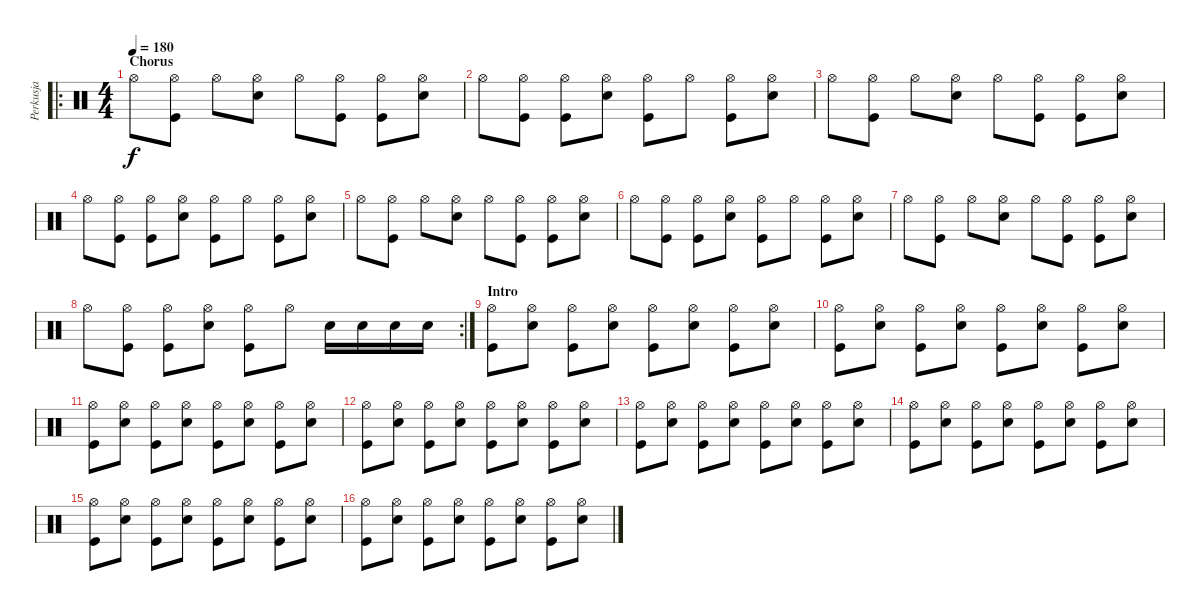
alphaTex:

\track ("Perkusja" "Perkusja") {instrument percussion}
\staff {score}
\articulation defaults
\ro
\ts (4 4)
\section ("" "Chorus")
\tempo 180
\clef neutral
\ks c "Hi-Hat (open)".8{dy f}
("Hi-Hat (open)" "Kick (hit)").8 "Hi-Hat (open)".8 ("Hi-Hat (open)" "Electric Snare (hit)").8 "Hi-Hat (open)".8 ("Hi-Hat (open)" "Kick (hit)").8 ("Hi-Hat (open)" "Kick (hit)").8 ("Hi-Hat (open)" "Electric Snare (hit)").8 |
"Hi-Hat (open)".8 ("Hi-Hat (open)" "Kick (hit)").8 ("Hi-Hat (open)" "Kick (hit)").8 ("Hi-Hat (open)" "Electric Snare (hit)").8 ("Hi-Hat (open)" "Kick (hit)").8 "Hi-Hat (open)".8 ("Hi-Hat (open)" "Kick (hit)").8 ("Hi-Hat (open)" "Electric Snare (hit)").8 |
"Hi-Hat (open)".8 ("Hi-Hat (open)" "Kick (hit)").8 "Hi-Hat (open)".8 ("Hi-Hat (open)" "Electric Snare (hit)").8 "Hi-Hat (open)".8 ("Hi-Hat (open)" "Kick (hit)").8 ("Hi-Hat (open)" "Kick (hit)").8 ("Hi-Hat (open)" "Electric Snare (hit)").8 |
"Hi-Hat (open)".8 ("Hi-Hat (open)" "Kick (hit)").8 ("Hi-Hat (open)" "Kick (hit)").8 ("Hi-Hat (open)" "Electric Snare (hit)").8 ("Hi-Hat (open)" "Kick (hit)").8 "Hi-Hat (open)".8 ("Hi-Hat (open)" "Kick (hit)").8 ("Hi-Hat (open)" "Electric Snare (hit)").8 |
"Hi-Hat (open)".8 ("Hi-Hat (open)" "Kick (hit)").8 "Hi-Hat (open)".8 ("Hi-Hat (open)" "Electric Snare (hit)").8 "Hi-Hat (open)".8 ("Hi-Hat (open)" "Kick (hit)").8 ("Hi-Hat (open)" "Kick (hit)").8 ("Hi-Hat (open)" "Electric Snare (hit)").8 |
"Hi-Hat (open)".8 ("Hi-Hat (open)" "Kick (hit)").8 ("Hi-Hat (open)" "Kick (hit)").8 ("Hi-Hat (open)" "Electric Snare (hit)").8 ("Hi-Hat (open)" "Kick (hit)").8 "Hi-Hat (open)".8 ("Hi-Hat (open)" "Kick (hit)").8 ("Hi-Hat (open)" "Electric Snare (hit)").8 |
"Hi-Hat (open)".8 ("Hi-Hat (open)" "Kick (hit)").8 "Hi-Hat (open)".8 ("Hi-Hat (open)" "Electric Snare (hit)").8 "Hi-Hat (open)".8 ("Hi-Hat (open)" "Kick (hit)").8 ("Hi-Hat (open)" "Kick (hit)").8 ("Hi-Hat (open)" "Electric Snare (hit)").8 |
\rc 2 "Hi-Hat (open)".8
("Hi-Hat (open)" "Kick (hit)").8 ("Hi-Hat (open)" "Kick (hit)").8 ("Hi-Hat (open)" "Electric Snare (hit)").8 ("Hi-Hat (open)" "Kick (hit)").8 "Hi-Hat (open)".8 "Electric Snare (hit)".16 "Electric Snare (hit)".16 "Electric Snare (hit)".16 "Electric Snare (hit)".16 |
\section ("" "Intro")
("Kick (hit)" "Hi-Hat (open)").8 ("Electric Snare (hit)" "Hi-Hat (open)").8 ("Kick (hit)" "Hi-Hat (open)").8 ("Electric Snare (hit)" "Hi-Hat (open)").8 ("Kick (hit)" "Hi-Hat (open)").8 ("Electric Snare (hit)" "Hi-Hat (open)").8 ("Kick (hit)" "Hi-Hat (open)").8 ("Electric Snare (hit)" "Hi-Hat (open)").8 |
("Kick (hit)" "Hi-Hat (open)").8 ("Electric Snare (hit)" "Hi-Hat (open)").8 ("Kick (hit)" "Hi-Hat (open)").8 ("Electric Snare (hit)" "Hi-Hat (open)").8 ("Kick (hit)" "Hi-Hat (open)").8 ("Electric Snare (hit)" "Hi-Hat (open)").8 ("Kick (hit)" "Hi-Hat (open)").8 ("Electric Snare (hit)" "Hi-Hat (open)").8 |
("Kick (hit)" "Hi-Hat (open)").8 ("Electric Snare (hit)" "Hi-Hat (open)").8 ("Kick (hit)" "Hi-Hat (open)").8 ("Electric Snare (hit)" "Hi-Hat (open)").8 ("Kick (hit)" "Hi-Hat (open)").8 ("Electric Snare (hit)" "Hi-Hat (open)").8 ("Kick (hit)" "Hi-Hat (open)").8 ("Electric Snare (hit)" "Hi-Hat (open)").8 |
("Kick (hit)" "Hi-Hat (open)").8 ("Electric Snare (hit)" "Hi-Hat (open)").8 ("Kick (hit)" "Hi-Hat (open)").8 ("Electric Snare (hit)" "Hi-Hat (open)").8 ("Kick (hit)" "Hi-Hat (open)").8 ("Electric Snare (hit)" "Hi-Hat (open)").8 ("Kick (hit)" "Hi-Hat (open)").8 ("Electric Snare (hit)" "Hi-Hat (open)").8 |
("Kick (hit)" "Hi-Hat (open)").8 ("Electric Snare (hit)" "Hi-Hat (open)").8 ("Kick (hit)" "Hi-Hat (open)").8 ("Electric Snare (hit)" "Hi-Hat (open)").8 ("Kick (hit)" "Hi-Hat (open)").8 ("Electric Snare (hit)" "Hi-Hat (open)").8 ("Kick (hit)" "Hi-Hat (open)").8 ("Electric Snare (hit)" "Hi-Hat (open)").8 |
("Kick (hit)" "Hi-Hat (open)").8 ("Electric Snare (hit)" "Hi-Hat (open)").8 ("Kick (hit)" "Hi-Hat (open)").8 ("Electric Snare (hit)" "Hi-Hat (open)").8 ("Kick (hit)" "Hi-Hat (open)").8 ("Electric Snare (hit)" "Hi-Hat (open)").8 ("Kick (hit)" "Hi-Hat (open)").8 ("Electric Snare (hit)" "Hi-Hat (open)").8 |
("Kick (hit)" "Hi-Hat (open)").8 ("Electric Snare (hit)" "Hi-Hat (open)").8 ("Kick (hit)" "Hi-Hat (open)").8 ("Electric Snare (hit)" "Hi-Hat (open)").8 ("Kick (hit)" "Hi-Hat (open)").8 ("Electric Snare (hit)" "Hi-Hat (open)").8 ("Kick (hit)" "Hi-Hat (open)").8 ("Electric Snare (hit)" "Hi-Hat (open)").8 |
("Kick (hit)" "Hi-Hat (open)").8 ("Electric Snare (hit)" "Hi-Hat (open)").8 ("Kick (hit)" "Hi-Hat (open)").8 ("Electric Snare (hit)" "Hi-Hat (open)").8 ("Kick (hit)" "Hi-Hat (open)").8 ("Electric Snare (hit)" "Hi-Hat (open)").8 ("Kick (hit)" "Hi-Hat (open)").8 ("Electric Snare (hit)" "Hi-Hat (open)").8
